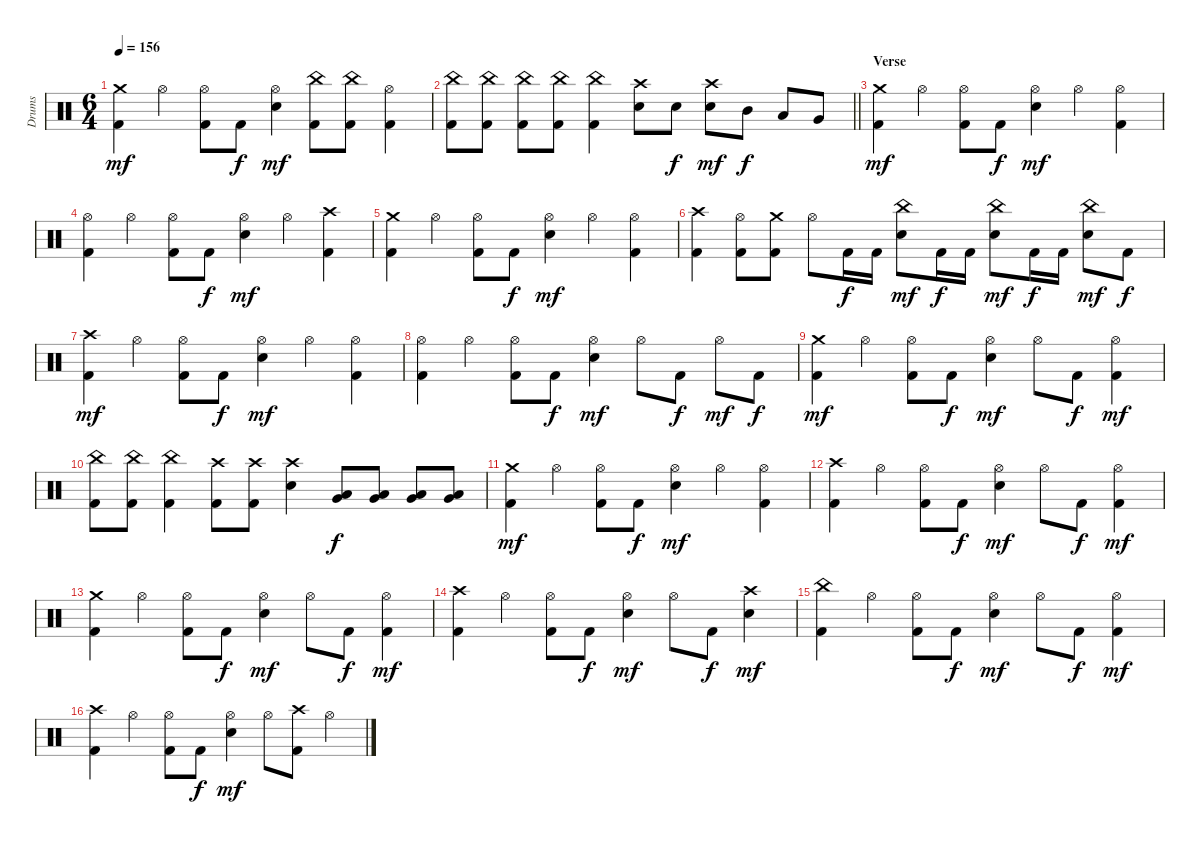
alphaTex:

\track ("Drums" "Drums") {instrument percussion}
\staff {score}
\articulation defaults
\ts (6 4)
\tempo 156
\clef neutral
\ks c
("Crash medium (hit)" "Kick (hit) 2").4{dy mf} "Hi-Hat (open)".4 ("Hi-Hat (open)" "Kick (hit) 2").8 "Kick (hit) 2".8{dy f} ("Hi-Hat (open)" "Electric Snare (hit)").4{dy mf} ("China (hit)" "Kick (hit) 2").8 ("China (hit)" "Kick (hit) 2").8 ("Hi-Hat (open)" "Kick (hit) 2").4 |
\barLineRight lightlight
("China (hit)" "Kick (hit) 2").8 ("China (hit)" "Kick (hit) 2").8 ("China (hit)" "Kick (hit) 2").8 ("China (hit)" "Kick (hit) 2").8 ("China (hit)" "Kick (hit) 2").4 ("Crash high (hit)" "Electric Snare (hit)").8 "Electric Snare (hit)".8{dy f} ("Crash high (hit)" "Electric Snare (hit)").8{dy mf} "Mid Tom (hit)".8{dy f} "Low Tom (hit)".8 "Very Low Tom (hit)".8 |
\section ("" "Verse")
("Crash medium (hit)" "Kick (hit) 2").4{dy mf} "Hi-Hat (open)".4 ("Hi-Hat (open)" "Kick (hit) 2").8 "Kick (hit) 2".8{dy f} ("Hi-Hat (open)" "Electric Snare (hit)").4{dy mf} "Hi-Hat (open)".4 ("Hi-Hat (open)" "Kick (hit) 2").4 |
("Hi-Hat (open)" "Kick (hit) 2").4 "Hi-Hat (open)".4 ("Hi-Hat (open)" "Kick (hit) 2").8 "Kick (hit) 2".8{dy f} ("Hi-Hat (open)" "Electric Snare (hit)").4{dy mf} "Hi-Hat (open)".4 ("Crash high (hit)" "Kick (hit) 2").4 |
("Crash medium (hit)" "Kick (hit) 2").4 "Hi-Hat (open)".4 ("Hi-Hat (open)" "Kick (hit) 2").8 "Kick (hit) 2".8{dy f} ("Hi-Hat (open)" "Electric Snare (hit)").4{dy mf} "Hi-Hat (open)".4 ("Hi-Hat (open)" "Kick (hit) 2").4 |
("Crash high (hit)" "Kick (hit) 2").4 ("Hi-Hat (open)" "Kick (hit) 2").8 ("Crash medium (hit)" "Kick (hit) 2").8 "Hi-Hat (open)".8 "Kick (hit) 2".16{dy f} "Kick (hit) 2".16 ("China (hit)" "Electric Snare (hit)").8{dy mf} "Kick (hit) 2".16{dy f} "Kick (hit) 2".16 ("China (hit)" "Electric Snare (hit)").8{dy mf} "Kick (hit) 2".16{dy f} "Kick (hit) 2".16 ("China (hit)" "Electric Snare (hit)").8{dy mf} "Kick (hit) 2".8{dy f} |
("Crash high (hit)" "Kick (hit) 2").4{dy mf} "Hi-Hat (open)".4 ("Hi-Hat (open)" "Kick (hit) 2").8 "Kick (hit) 2".8{dy f} ("Hi-Hat (open)" "Electric Snare (hit)").4{dy mf} "Hi-Hat (open)".4 ("Hi-Hat (open)" "Kick (hit) 2").4 |
("Hi-Hat (open)" "Kick (hit) 2").4 "Hi-Hat (open)".4 ("Hi-Hat (open)" "Kick (hit) 2").8 "Kick (hit) 2".8{dy f} ("Hi-Hat (open)" "Electric Snare (hit)").4{dy mf} "Hi-Hat (open)".8 "Kick (hit) 2".8{dy f} "Hi-Hat (open)".8{dy mf} "Kick (hit) 2".8{dy f} |
("Crash medium (hit)" "Kick (hit) 2").4{dy mf} "Hi-Hat (open)".4 ("Hi-Hat (open)" "Kick (hit) 2").8 "Kick (hit) 2".8{dy f} ("Hi-Hat (open)" "Electric Snare (hit)").4{dy mf} "Hi-Hat (open)".8 "Kick (hit) 2".8{dy f} ("Hi-Hat (open)" "Kick (hit) 2").4{dy mf} |
("China (hit)" "Kick (hit) 2").8 ("China (hit)" "Kick (hit) 2").8 ("China (hit)" "Kick (hit) 2").4 ("Crash high (hit)" "Kick (hit) 2").8 ("Crash high (hit)" "Kick (hit) 2").8 ("Crash high (hit)" "Electric Snare (hit)").4 ("Very Low Tom (hit)" "Low Floor Tom (hit)").8{dy f} ("Very Low Tom (hit)" "Low Floor Tom (hit)").8 ("Very Low Tom (hit)" "Low Floor Tom (hit)").8 ("Very Low Tom (hit)" "Low Floor Tom (hit)").8 |
("Crash medium (hit)" "Kick (hit) 2").4{dy mf} "Hi-Hat (open)".4 ("Hi-Hat (open)" "Kick (hit) 2").8 "Kick (hit) 2".8{dy f} ("Hi-Hat (open)" "Electric Snare (hit)").4{dy mf} "Hi-Hat (open)".4 ("Hi-Hat (open)" "Kick (hit) 2").4 |
("Crash high (hit)" "Kick (hit) 2").4 "Hi-Hat (open)".4 ("Hi-Hat (open)" "Kick (hit) 2").8 "Kick (hit) 2".8{dy f} ("Hi-Hat (open)" "Electric Snare (hit)").4{dy mf} "Hi-Hat (open)".8 "Kick (hit) 2".8{dy f} ("Hi-Hat (open)" "Kick (hit) 2").4{dy mf} |
("Crash medium (hit)" "Kick (hit) 2").4 "Hi-Hat (open)".4 ("Hi-Hat (open)" "Kick (hit) 2").8 "Kick (hit) 2".8{dy f} ("Hi-Hat (open)" "Electric Snare (hit)").4{dy mf} "Hi-Hat (open)".8 "Kick (hit) 2".8{dy f} ("Hi-Hat (open)" "Kick (hit) 2").4{dy mf} |
("Crash high (hit)" "Kick (hit) 2").4 "Hi-Hat (open)".4 ("Hi-Hat (open)" "Kick (hit) 2").8 "Kick (hit) 2".8{dy f} ("Hi-Hat (open)" "Electric Snare (hit)").4{dy mf} "Hi-Hat (open)".8 "Kick (hit) 2".8{dy f} ("Crash high (hit)" "Electric Snare (hit)").4{dy mf} |
("China (hit)" "Kick (hit) 2").4 "Hi-Hat (open)".4 ("Hi-Hat (open)" "Kick (hit) 2").8 "Kick (hit) 2".8{dy f} ("Hi-Hat (open)" "Electric Snare (hit)").4{dy mf} "Hi-Hat (open)".8 "Kick (hit) 2".8{dy f} ("Hi-Hat (open)" "Kick (hit) 2").4{dy mf} |
("Crash high (hit)" "Kick (hit) 2").4 "Hi-Hat (open)".4 ("Hi-Hat (open)" "Kick (hit) 2").8 "Kick (hit) 2".8{dy f} ("Hi-Hat (open)" "Electric Snare (hit)").4{dy mf} "Hi-Hat (open)".8 ("Crash high (hit)" "Kick (hit) 2").8 "Hi-Hat (open)".4
